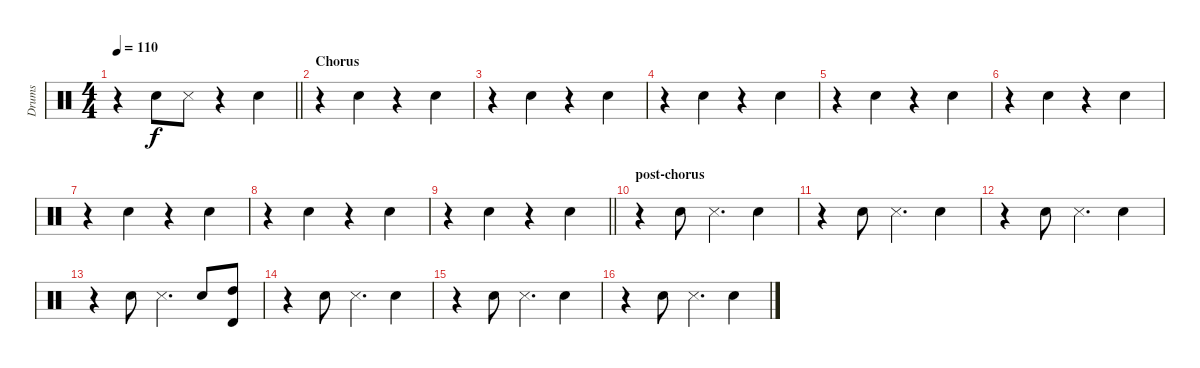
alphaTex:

\track ("Drums" "Drums") {instrument percussion}
\staff {score}
\articulation defaults
\ts (4 4)
\tempo 110
\clef neutral
\barLineRight lightlight
\ks c
r.4{dy f} "Snare (hit) 2".8 "Snare (side stick) 3".8 r.4 "Snare (hit) 2".4 |
\section ("" "Chorus")
r.4 "Snare (hit) 2".4 r.4 "Snare (hit) 2".4 |
r.4 "Snare (hit) 2".4 r.4 "Snare (hit) 2".4 |
r.4 "Snare (hit) 2".4 r.4 "Snare (hit) 2".4 |
r.4 "Snare (hit) 2".4 r.4 "Snare (hit) 2".4 |
r.4 "Snare (hit) 2".4 r.4 "Snare (hit) 2".4 |
r.4 "Snare (hit) 2".4 r.4 "Snare (hit) 2".4 |
r.4 "Snare (hit) 2".4 r.4 "Snare (hit) 2".4 |
\barLineRight lightlight
r.4 "Snare (hit) 2".4 r.4 "Snare (hit) 2".4 |
\section ("" "post-chorus")
r.4 "Snare (hit) 2".8 "Snare (side stick) 3".4{d} "Snare (hit) 2".4 |
r.4 "Snare (hit) 2".8 "Snare (side stick) 3".4{d} "Snare (hit) 2".4 |
r.4 "Snare (hit) 2".8 "Snare (side stick) 3".4{d} "Snare (hit) 2".4 |
r.4 "Snare (hit) 2".8 "Snare (side stick) 3".4{d} "Snare (hit) 2".8 ("High Tom (hit)" "Timbale high (hit)").8 |
r.4 "Snare (hit) 2".8 "Snare (side stick) 3".4{d} "Snare (hit) 2".4 |
r.4 "Snare (hit) 2".8 "Snare (side stick) 3".4{d} "Snare (hit) 2".4 |
r.4 "Snare (hit) 2".8 "Snare (side stick) 3".4{d} "Snare (hit) 2".4
